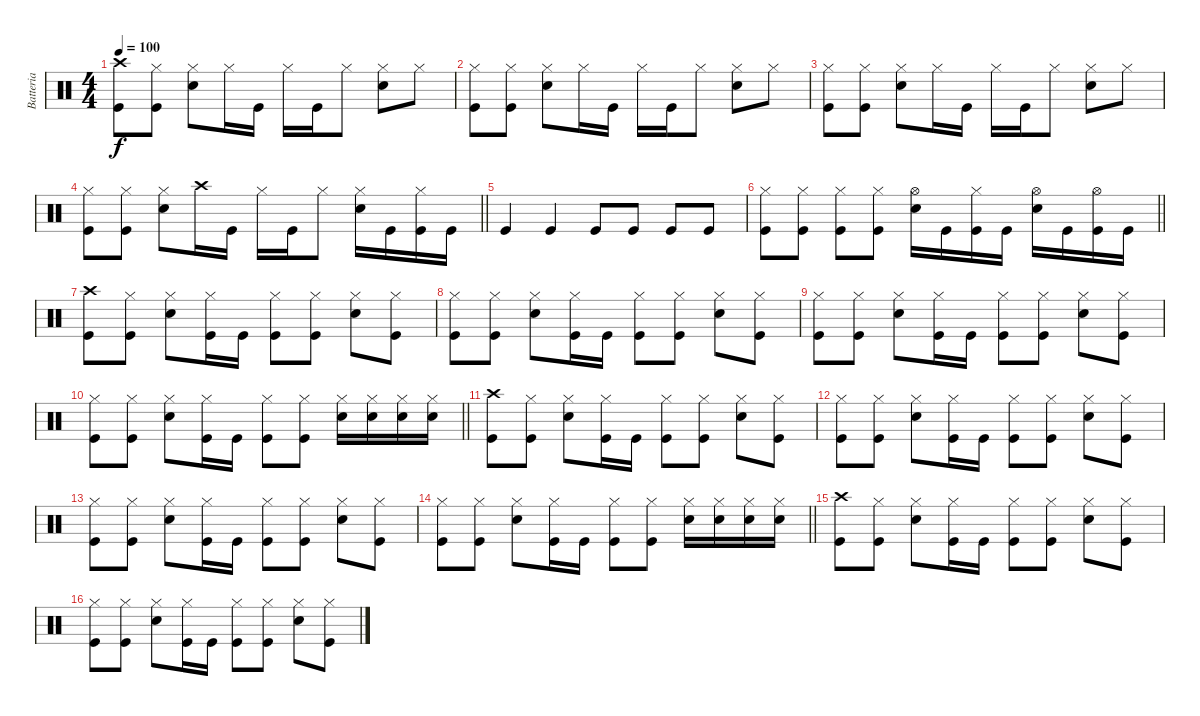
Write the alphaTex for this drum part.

\track ("Batteria" "Batteria") {instrument percussion}
\staff {score}
\articulation defaults
\ts (4 4)
\tempo 100
\clef neutral
\ks c
("Kick (hit)" "Crash high (hit)").8{dy f} ("Kick (hit)" "Hi-Hat (closed)").8 ("Snare (hit) 2" "Hi-Hat (closed)").8 "Hi-Hat (closed)".16 "Kick (hit)".16 "Hi-Hat (closed)".16 "Kick (hit)".16 "Hi-Hat (closed)".8 ("Snare (hit) 2" "Hi-Hat (closed)").8 "Hi-Hat (closed)".8 |
("Kick (hit)" "Hi-Hat (closed)").8 ("Kick (hit)" "Hi-Hat (closed)").8 ("Snare (hit) 2" "Hi-Hat (closed)").8 "Hi-Hat (closed)".16 "Kick (hit)".16 "Hi-Hat (closed)".16 "Kick (hit)".16 "Hi-Hat (closed)".8 ("Snare (hit) 2" "Hi-Hat (closed)").8 "Hi-Hat (closed)".8 |
("Kick (hit)" "Hi-Hat (closed)").8 ("Kick (hit)" "Hi-Hat (closed)").8 ("Snare (hit) 2" "Hi-Hat (closed)").8 "Hi-Hat (closed)".16 "Kick (hit)".16 "Hi-Hat (closed)".16 "Kick (hit)".16 "Hi-Hat (closed)".8 ("Snare (hit) 2" "Hi-Hat (closed)").8 "Hi-Hat (closed)".8 |
\barLineRight lightlight
("Kick (hit)" "Hi-Hat (closed)").8 ("Kick (hit)" "Hi-Hat (closed)").8 ("Snare (hit) 2" "Hi-Hat (closed)").8 "Crash high (hit)".16 "Kick (hit)".16 "Hi-Hat (closed)".16 "Kick (hit)".16 "Hi-Hat (closed)".8 ("Snare (hit) 2" "Hi-Hat (closed)").16 "Kick (hit)".16 ("Kick (hit)" "Hi-Hat (closed)").16 "Kick (hit)".16 |
"Kick (hit)".4 "Kick (hit)".4 "Kick (hit)".8 "Kick (hit)".8 "Kick (hit)".8 "Kick (hit)".8 |
\barLineRight lightlight
("Kick (hit)" "Hi-Hat (closed)").8 ("Kick (hit)" "Hi-Hat (closed)").8 ("Kick (hit)" "Hi-Hat (closed)").8 ("Kick (hit)" "Hi-Hat (closed)").8 ("Snare (hit) 2" "Hi-Hat (open)").16 "Kick (hit)".16 ("Kick (hit)" "Hi-Hat (closed)").16 "Kick (hit)".16 ("Snare (hit) 2" "Hi-Hat (open)").16 "Kick (hit)".16 ("Kick (hit)" "Hi-Hat (open)").16 "Kick (hit)".16 |
("Crash high (hit)" "Kick (hit)").8 ("Hi-Hat (closed)" "Kick (hit)").8 ("Snare (hit) 2" "Hi-Hat (closed)").8 ("Hi-Hat (closed)" "Kick (hit)").16 "Kick (hit)".16 ("Kick (hit)" "Hi-Hat (closed)").8 ("Kick (hit)" "Hi-Hat (closed)").8 ("Snare (hit) 2" "Hi-Hat (closed)").8 ("Kick (hit)" "Hi-Hat (closed)").8 |
("Hi-Hat (closed)" "Kick (hit)").8 ("Hi-Hat (closed)" "Kick (hit)").8 ("Snare (hit) 2" "Hi-Hat (closed)").8 ("Hi-Hat (closed)" "Kick (hit)").16 "Kick (hit)".16 ("Kick (hit)" "Hi-Hat (closed)").8 ("Kick (hit)" "Hi-Hat (closed)").8 ("Snare (hit) 2" "Hi-Hat (closed)").8 ("Kick (hit)" "Hi-Hat (closed)").8 |
("Hi-Hat (closed)" "Kick (hit)").8 ("Hi-Hat (closed)" "Kick (hit)").8 ("Snare (hit) 2" "Hi-Hat (closed)").8 ("Hi-Hat (closed)" "Kick (hit)").16 "Kick (hit)".16 ("Kick (hit)" "Hi-Hat (closed)").8 ("Kick (hit)" "Hi-Hat (closed)").8 ("Snare (hit) 2" "Hi-Hat (closed)").8 ("Kick (hit)" "Hi-Hat (closed)").8 |
\barLineRight lightlight
("Hi-Hat (closed)" "Kick (hit)").8 ("Hi-Hat (closed)" "Kick (hit)").8 ("Snare (hit) 2" "Hi-Hat (closed)").8 ("Hi-Hat (closed)" "Kick (hit)").16 "Kick (hit)".16 ("Kick (hit)" "Hi-Hat (closed)").8 ("Kick (hit)" "Hi-Hat (closed)").8 ("Snare (hit) 2" "Hi-Hat (closed)").16 ("Snare (hit) 2" "Hi-Hat (closed)").16 ("Snare (hit) 2" "Hi-Hat (closed)").16 ("Snare (hit) 2" "Hi-Hat (closed)").16 |
("Crash high (hit)" "Kick (hit)").8 ("Hi-Hat (closed)" "Kick (hit)").8 ("Snare (hit) 2" "Hi-Hat (closed)").8 ("Hi-Hat (closed)" "Kick (hit)").16 "Kick (hit)".16 ("Kick (hit)" "Hi-Hat (closed)").8 ("Kick (hit)" "Hi-Hat (closed)").8 ("Snare (hit) 2" "Hi-Hat (closed)").8 ("Kick (hit)" "Hi-Hat (closed)").8 |
("Hi-Hat (closed)" "Kick (hit)").8 ("Hi-Hat (closed)" "Kick (hit)").8 ("Snare (hit) 2" "Hi-Hat (closed)").8 ("Hi-Hat (closed)" "Kick (hit)").16 "Kick (hit)".16 ("Kick (hit)" "Hi-Hat (closed)").8 ("Kick (hit)" "Hi-Hat (closed)").8 ("Snare (hit) 2" "Hi-Hat (closed)").8 ("Kick (hit)" "Hi-Hat (closed)").8 |
("Hi-Hat (closed)" "Kick (hit)").8 ("Hi-Hat (closed)" "Kick (hit)").8 ("Snare (hit) 2" "Hi-Hat (closed)").8 ("Hi-Hat (closed)" "Kick (hit)").16 "Kick (hit)".16 ("Kick (hit)" "Hi-Hat (closed)").8 ("Kick (hit)" "Hi-Hat (closed)").8 ("Snare (hit) 2" "Hi-Hat (closed)").8 ("Kick (hit)" "Hi-Hat (closed)").8 |
\barLineRight lightlight
("Hi-Hat (closed)" "Kick (hit)").8 ("Hi-Hat (closed)" "Kick (hit)").8 ("Snare (hit) 2" "Hi-Hat (closed)").8 ("Hi-Hat (closed)" "Kick (hit)").16 "Kick (hit)".16 ("Kick (hit)" "Hi-Hat (closed)").8 ("Kick (hit)" "Hi-Hat (closed)").8 ("Snare (hit) 2" "Hi-Hat (closed)").16 ("Snare (hit) 2" "Hi-Hat (closed)").16 ("Snare (hit) 2" "Hi-Hat (closed)").16 ("Snare (hit) 2" "Hi-Hat (closed)").16 |
("Crash high (hit)" "Kick (hit)").8 ("Hi-Hat (closed)" "Kick (hit)").8 ("Snare (hit) 2" "Hi-Hat (closed)").8 ("Hi-Hat (closed)" "Kick (hit)").16 "Kick (hit)".16 ("Kick (hit)" "Hi-Hat (closed)").8 ("Kick (hit)" "Hi-Hat (closed)").8 ("Snare (hit) 2" "Hi-Hat (closed)").8 ("Kick (hit)" "Hi-Hat (closed)").8 |
("Hi-Hat (closed)" "Kick (hit)").8 ("Hi-Hat (closed)" "Kick (hit)").8 ("Snare (hit) 2" "Hi-Hat (closed)").8 ("Hi-Hat (closed)" "Kick (hit)").16 "Kick (hit)".16 ("Kick (hit)" "Hi-Hat (closed)").8 ("Kick (hit)" "Hi-Hat (closed)").8 ("Snare (hit) 2" "Hi-Hat (closed)").8 ("Kick (hit)" "Hi-Hat (closed)").8
